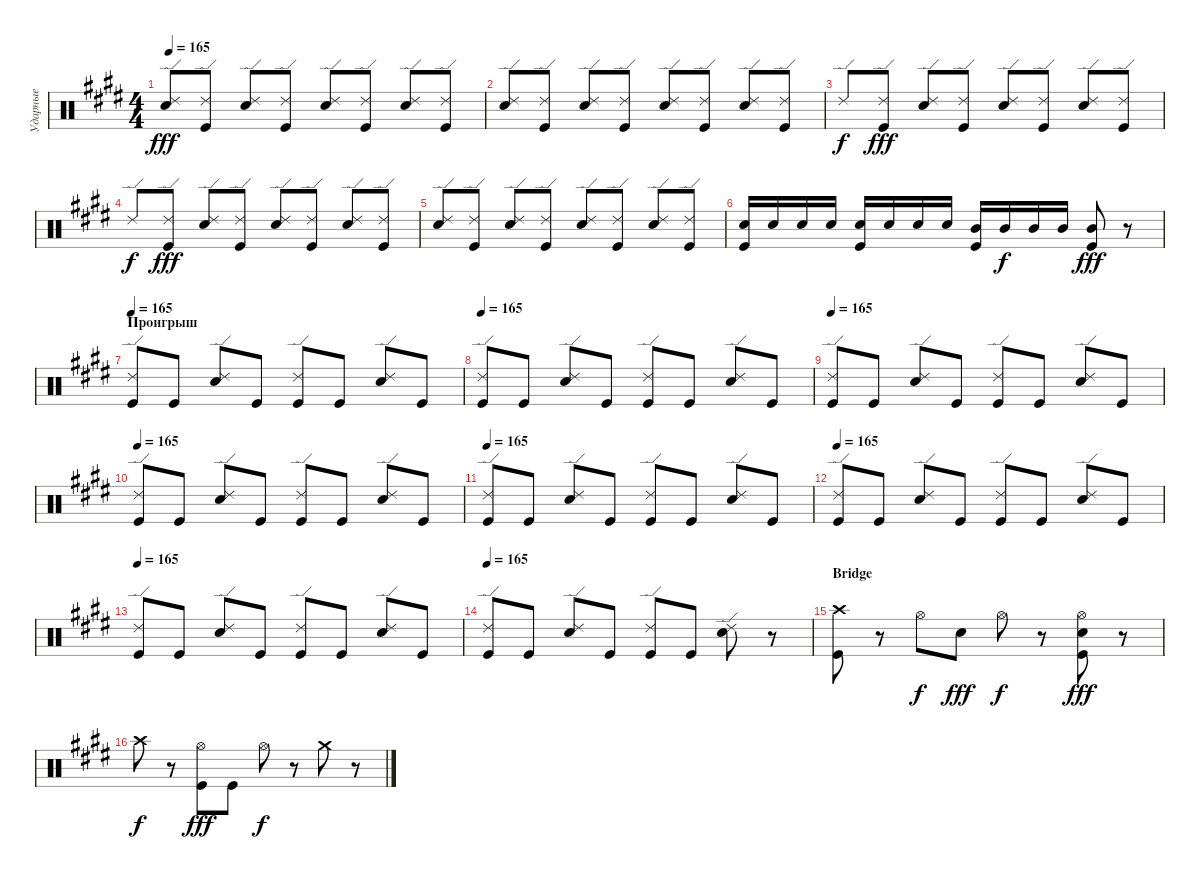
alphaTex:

\track ("Ударные" "Ударные") {instrument percussion}
\staff {score}
\articulation defaults
\ts (4 4)
\tempo 165
\clef neutral
\ks e
("Ride (edge) 2" "Snare (hit) 2").8{dy fff} ("Ride (edge) 2" "Kick (hit)").8 ("Ride (edge) 2" "Snare (hit) 2").8 ("Ride (edge) 2" "Kick (hit)").8 ("Ride (edge) 2" "Snare (hit) 2").8 ("Ride (edge) 2" "Kick (hit)").8 ("Ride (edge) 2" "Snare (hit) 2").8 ("Ride (edge) 2" "Kick (hit)").8 |
("Ride (edge) 2" "Snare (hit) 2").8 ("Ride (edge) 2" "Kick (hit)").8 ("Ride (edge) 2" "Snare (hit) 2").8 ("Ride (edge) 2" "Kick (hit)").8 ("Ride (edge) 2" "Snare (hit) 2").8 ("Ride (edge) 2" "Kick (hit)").8 ("Ride (edge) 2" "Snare (hit) 2").8 ("Ride (edge) 2" "Kick (hit)").8 |
"Ride (edge) 2".8{dy f} ("Ride (edge) 2" "Kick (hit)").8{dy fff} ("Ride (edge) 2" "Snare (hit) 2").8 ("Ride (edge) 2" "Kick (hit)").8 ("Ride (edge) 2" "Snare (hit) 2").8 ("Ride (edge) 2" "Kick (hit)").8 ("Ride (edge) 2" "Snare (hit) 2").8 ("Ride (edge) 2" "Kick (hit)").8 |
"Ride (edge) 2".8{dy f} ("Ride (edge) 2" "Kick (hit)").8{dy fff} ("Ride (edge) 2" "Snare (hit) 2").8 ("Ride (edge) 2" "Kick (hit)").8 ("Ride (edge) 2" "Snare (hit) 2").8 ("Ride (edge) 2" "Kick (hit)").8 ("Ride (edge) 2" "Snare (hit) 2").8 ("Ride (edge) 2" "Kick (hit)").8 |
("Ride (edge) 2" "Snare (hit) 2").8 ("Ride (edge) 2" "Kick (hit)").8 ("Ride (edge) 2" "Snare (hit) 2").8 ("Ride (edge) 2" "Kick (hit)").8 ("Ride (edge) 2" "Snare (hit) 2").8 ("Ride (edge) 2" "Kick (hit)").8 ("Ride (edge) 2" "Snare (hit) 2").8 ("Ride (edge) 2" "Kick (hit)").8 |
("Snare (hit) 2" "Kick (hit)").16 "Snare (hit) 2".16 "Snare (hit) 2".16 "Snare (hit) 2".16 ("Snare (hit) 2" "Kick (hit)").16 "Snare (hit) 2".16 "Snare (hit) 2".16 "Snare (hit) 2".16 ("Mid Tom (hit)" "Kick (hit)").16 "Mid Tom (hit)".16{dy f} "Mid Tom (hit)".16 "Mid Tom (hit)".16 ("Mid Tom (hit)" "Kick (hit)").8{dy fff} r.8 |
\section ("" "Проигрыш")
\tempo 165
("Ride (edge) 2" "Kick (hit)").8 "Kick (hit)".8 ("Ride (edge) 2" "Snare (hit) 2").8 "Kick (hit)".8 ("Ride (edge) 2" "Kick (hit)").8 "Kick (hit)".8 ("Ride (edge) 2" "Snare (hit) 2").8 "Kick (hit)".8 |
\tempo 165
("Ride (edge) 2" "Kick (hit)").8 "Kick (hit)".8 ("Ride (edge) 2" "Snare (hit) 2").8 "Kick (hit)".8 ("Ride (edge) 2" "Kick (hit)").8 "Kick (hit)".8 ("Ride (edge) 2" "Snare (hit) 2").8 "Kick (hit)".8 |
\tempo 165
("Ride (edge) 2" "Kick (hit)").8 "Kick (hit)".8 ("Ride (edge) 2" "Snare (hit) 2").8 "Kick (hit)".8 ("Ride (edge) 2" "Kick (hit)").8 "Kick (hit)".8 ("Ride (edge) 2" "Snare (hit) 2").8 "Kick (hit)".8 |
\tempo 165
("Ride (edge) 2" "Kick (hit)").8 "Kick (hit)".8 ("Ride (edge) 2" "Snare (hit) 2").8 "Kick (hit)".8 ("Ride (edge) 2" "Kick (hit)").8 "Kick (hit)".8 ("Ride (edge) 2" "Snare (hit) 2").8 "Kick (hit)".8 |
\tempo 165
("Ride (edge) 2" "Kick (hit)").8 "Kick (hit)".8 ("Ride (edge) 2" "Snare (hit) 2").8 "Kick (hit)".8 ("Ride (edge) 2" "Kick (hit)").8 "Kick (hit)".8 ("Ride (edge) 2" "Snare (hit) 2").8 "Kick (hit)".8 |
\tempo 165
("Ride (edge) 2" "Kick (hit)").8 "Kick (hit)".8 ("Ride (edge) 2" "Snare (hit) 2").8 "Kick (hit)".8 ("Ride (edge) 2" "Kick (hit)").8 "Kick (hit)".8 ("Ride (edge) 2" "Snare (hit) 2").8 "Kick (hit)".8 |
\tempo 165
("Ride (edge) 2" "Kick (hit)").8 "Kick (hit)".8 ("Ride (edge) 2" "Snare (hit) 2").8 "Kick (hit)".8 ("Ride (edge) 2" "Kick (hit)").8 "Kick (hit)".8 ("Ride (edge) 2" "Snare (hit) 2").8 "Kick (hit)".8 |
\tempo 165
("Ride (edge) 2" "Kick (hit)").8 "Kick (hit)".8 ("Ride (edge) 2" "Snare (hit) 2").8 "Kick (hit)".8 ("Ride (edge) 2" "Kick (hit)").8 "Kick (hit)".8 ("Ride (edge) 2" "Snare (hit) 2").8 r.8 |
\section ("" "Bridge")
("Crash high (hit)" "Kick (hit)").8 r.8 "Hi-Hat (open)".8{dy f} "Snare (hit) 2".8{dy fff} "Hi-Hat (open)".8{dy f} r.8 ("Hi-Hat (open)" "Snare (hit) 2" "Kick (hit)").8{dy fff} r.8 |
"Crash high (hit)".8{dy f} r.8 ("Hi-Hat (open)" "Kick (hit)").8{dy fff} "Kick (hit)".8 "Hi-Hat (open)".8{dy f} r.8 "Crash medium (hit)".8 r.8
